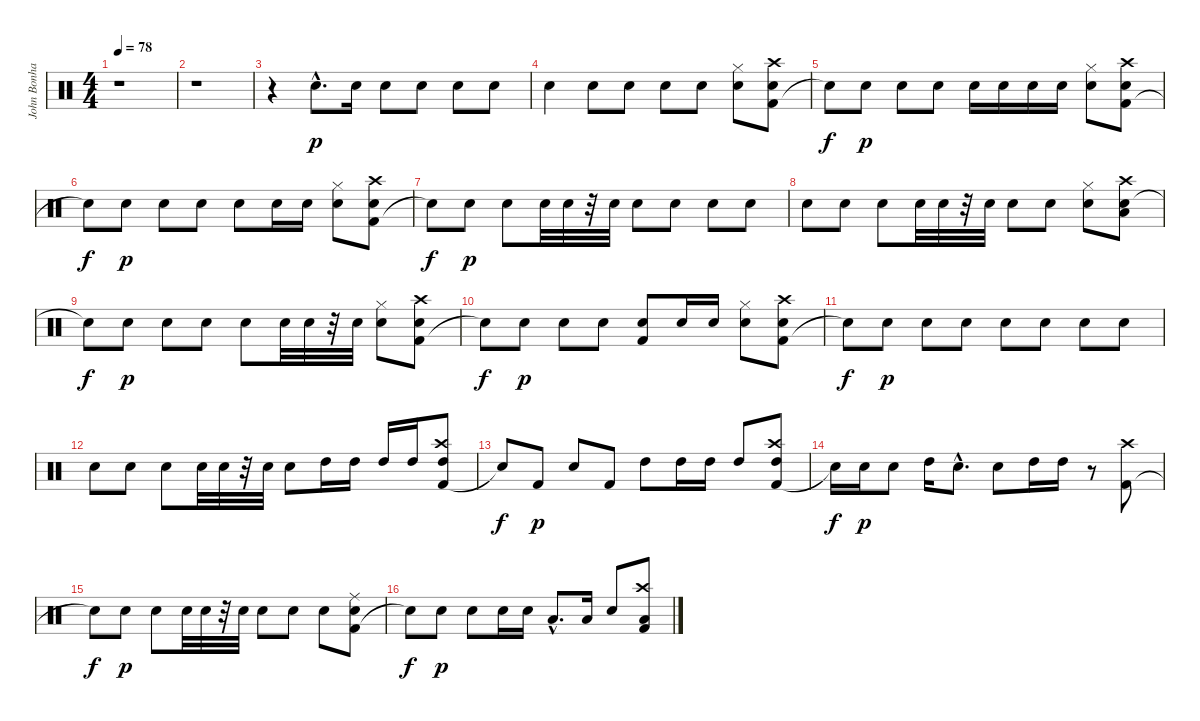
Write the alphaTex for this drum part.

\track ("John Bonham (Drums)" "John Bonha") {instrument percussion}
\staff {score}
\articulation defaults
\ts (4 4)
\tempo 78
\clef neutral
\ks c
r.1{dy p} |
r.1 |
r.4 "Snare (hit) 2"{hac}.8{d} "Snare (hit) 2".16 "Snare (hit) 2".8 "Snare (hit) 2".8 "Snare (hit) 2".8 "Snare (hit) 2".8 |
"Snare (hit) 2".4 "Snare (hit) 2".8 "Snare (hit) 2".8 "Snare (hit) 2".8 "Snare (hit) 2".8 ("Snare (hit) 2" "Hi-Hat (closed)").8 ("Kick (hit) 2" "Snare (hit) 2" "Crash high (hit)").8 |
"Snare (hit)"{t}.8{dy f} "Snare (hit) 2".8{dy p} "Snare (hit) 2".8 "Snare (hit) 2".8 "Snare (hit) 2".16 "Snare (hit) 2".16 "Snare (hit) 2".16 "Snare (hit) 2".16 ("Snare (hit) 2" "Hi-Hat (closed)").8 ("Kick (hit) 2" "Snare (hit) 2" "Crash high (hit)").8 |
"Snare (hit)"{t}.8{dy f} "Snare (hit) 2".8{dy p} "Snare (hit) 2".8 "Snare (hit) 2".8 "Snare (hit) 2".8 "Snare (hit) 2".16 "Snare (hit) 2".16 ("Snare (hit) 2" "Hi-Hat (closed)").8 ("Kick (hit) 2" "Snare (hit) 2" "Crash high (hit)").8 |
"Snare (hit)"{t}.8{dy f} "Snare (hit) 2".8{dy p} "Snare (hit) 2".8 "Snare (hit) 2".32 "Snare (hit) 2".32 r.32 "Snare (hit) 2".32 "Snare (hit) 2".8 "Snare (hit) 2".8 "Snare (hit) 2".8 "Snare (hit) 2".8 |
"Snare (hit) 2".8 "Snare (hit) 2".8 "Snare (hit) 2".8 "Snare (hit) 2".32 "Snare (hit) 2".32 r.32 "Snare (hit) 2".32 "Snare (hit) 2".8 "Snare (hit) 2".8 ("Snare (hit) 2" "Hi-Hat (closed)").8 ("Snare (hit) 2" "Low Tom (hit)" "Crash high (hit)").8 |
"Snare (hit)"{t}.8{dy f} "Snare (hit) 2".8{dy p} "Snare (hit) 2".8 "Snare (hit) 2".8 "Snare (hit) 2".8 "Snare (hit) 2".32 "Snare (hit) 2".32 r.32 "Snare (hit) 2".32 ("Snare (hit) 2" "Hi-Hat (closed)").8 ("Kick (hit) 2" "Snare (hit) 2" "Crash high (hit)").8 |
"Snare (hit)"{t}.8{dy f} "Snare (hit) 2".8{dy p} "Snare (hit) 2".8 "Snare (hit) 2".8 ("Kick (hit) 2" "Snare (hit) 2").8 "Snare (hit) 2".16 "Snare (hit) 2".16 ("Snare (hit) 2" "Hi-Hat (closed)").8 ("Kick (hit) 2" "Snare (hit) 2" "Crash high (hit)").8 |
"Snare (hit)"{t}.8{dy f} "Snare (hit) 2".8{dy p} "Snare (hit) 2".8 "Snare (hit) 2".8 "Snare (hit) 2".8 "Snare (hit) 2".8 "Snare (hit) 2".8 "Snare (hit) 2".8 |
"Snare (hit) 2".8 "Snare (hit) 2".8 "Snare (hit) 2".8 "Snare (hit) 2".32 "Snare (hit) 2".32 r.32 "Snare (hit) 2".32 "Snare (hit) 2".8 "High Tom (hit)".16 "High Tom (hit)".16 "High Tom (hit)".16 "High Tom (hit)".16 ("Kick (hit) 2" "High Tom (hit)" "Crash high (hit)").8 |
"Snare (hit)"{t}.8{dy f} "Kick (hit) 2".8{dy p} "Snare (hit) 2".8 "Kick (hit) 2".8 "High Tom (hit)".8 "High Tom (hit)".16 "High Tom (hit)".16 "High Tom (hit)".8 ("Kick (hit) 2" "High Tom (hit)" "Crash high (hit)").8 |
"Snare (hit)"{t}.16{dy f} "Snare (hit) 2".16{dy p} "Snare (hit) 2".8 "High Tom (hit)".16 "Snare (hit) 2"{hac}.8{d} "Snare (hit) 2".8 "High Tom (hit)".16 "High Tom (hit)".16 r.8 ("Kick (hit) 2" "Crash high (hit)").8 |
"Snare (hit)"{t}.8{dy f} "Snare (hit) 2".8{dy p} "Snare (hit) 2".8 "Snare (hit) 2".32 "Snare (hit) 2".32 r.32 "Snare (hit) 2".32 "Snare (hit) 2".8 "Snare (hit) 2".8 "Snare (hit) 2".8 ("Kick (hit) 2" "Snare (hit) 2" "Ride (middle)").8 |
"Snare (hit)"{t}.8{dy f} "Snare (hit) 2".8{dy p} "Snare (hit) 2".8 "Snare (hit) 2".16 "Snare (hit) 2".16 "Low Tom (hit)"{hac}.8{d} "Low Tom (hit)".16 "Snare (hit) 2".8 ("Kick (hit) 2" "Low Tom (hit)" "Crash high (hit)").8
